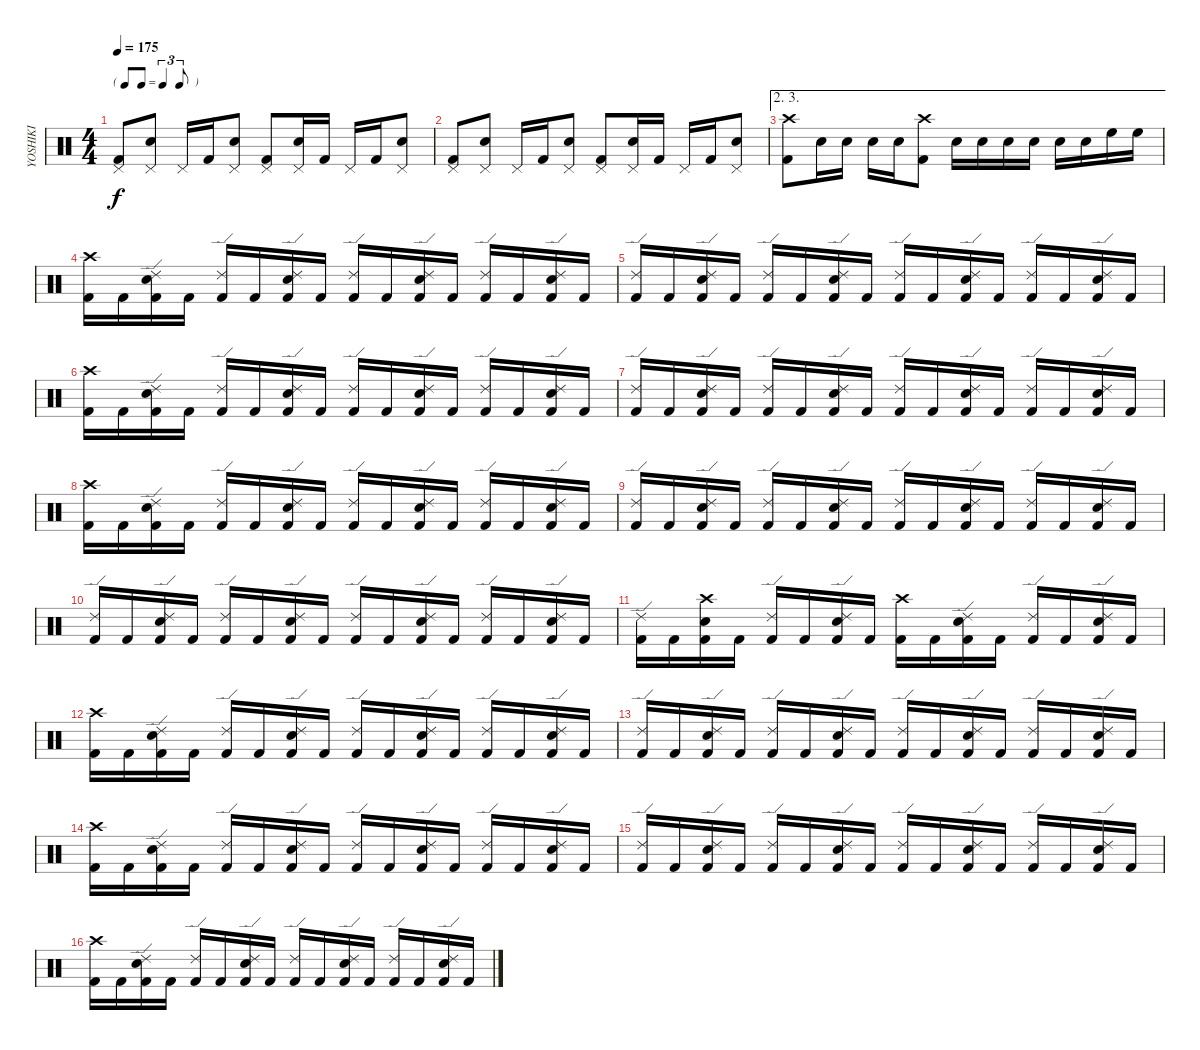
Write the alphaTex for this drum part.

\track ("YOSHIKI" "YOSHIKI") {instrument percussion}
\staff {score}
\articulation defaults
\ts (4 4)
\tf triplet8th
\tempo 175
\clef neutral
\ks c
("Pedal Hi-Hat (hit)" "Kick (hit) 2").8{dy f} ("Pedal Hi-Hat (hit)" "Snare (hit) 2").8 "Pedal Hi-Hat (hit)".16 "Kick (hit) 2".16 ("Pedal Hi-Hat (hit)" "Snare (hit) 2").8 ("Pedal Hi-Hat (hit)" "Kick (hit) 2").8 ("Pedal Hi-Hat (hit)" "Snare (hit) 2").16 "Kick (hit) 2".16 "Pedal Hi-Hat (hit)".16 "Kick (hit) 2".16 ("Pedal Hi-Hat (hit)" "Snare (hit) 2").8 |
("Pedal Hi-Hat (hit)" "Kick (hit) 2").8 ("Pedal Hi-Hat (hit)" "Snare (hit) 2").8 "Pedal Hi-Hat (hit)".16 "Kick (hit) 2".16 ("Pedal Hi-Hat (hit)" "Snare (hit) 2").8 ("Pedal Hi-Hat (hit)" "Kick (hit) 2").8 ("Pedal Hi-Hat (hit)" "Snare (hit) 2").16 "Kick (hit) 2".16 "Pedal Hi-Hat (hit)".16 "Kick (hit) 2".16 ("Pedal Hi-Hat (hit)" "Snare (hit) 2").8 |
\ae (2 3)
("Crash high (hit)" "Kick (hit) 2").8 "Snare (hit) 2".16 "Snare (hit) 2".16 "Snare (hit) 2".16 "Snare (hit) 2".16 ("Crash high (hit)" "Kick (hit) 2").8 "Snare (hit) 2".16 "Snare (hit) 2".16 "Snare (hit) 2".16 "Snare (hit) 2".16 "Snare (hit) 2".16 "Snare (hit) 2".16 "High Floor Tom (hit)".16 "High Floor Tom (hit)".16 |
("Crash high (hit)" "Kick (hit) 2").16 "Kick (hit) 2".16 ("Ride (edge) 2" "Snare (hit) 2" "Kick (hit) 2").16 "Kick (hit) 2".16 ("Ride (edge) 2" "Kick (hit) 2").16 "Kick (hit) 2".16 ("Ride (edge) 2" "Snare (hit) 2" "Kick (hit) 2").16 "Kick (hit) 2".16 ("Ride (edge) 2" "Kick (hit) 2").16 "Kick (hit) 2".16 ("Ride (edge) 2" "Snare (hit) 2" "Kick (hit) 2").16 "Kick (hit) 2".16 ("Ride (edge) 2" "Kick (hit) 2").16 "Kick (hit) 2".16 ("Ride (edge) 2" "Snare (hit) 2" "Kick (hit) 2").16 "Kick (hit) 2".16 |
("Ride (edge) 2" "Kick (hit) 2").16 "Kick (hit) 2".16 ("Ride (edge) 2" "Snare (hit) 2" "Kick (hit) 2").16 "Kick (hit) 2".16 ("Ride (edge) 2" "Kick (hit) 2").16 "Kick (hit) 2".16 ("Ride (edge) 2" "Snare (hit) 2" "Kick (hit) 2").16 "Kick (hit) 2".16 ("Ride (edge) 2" "Kick (hit) 2").16 "Kick (hit) 2".16 ("Ride (edge) 2" "Snare (hit) 2" "Kick (hit) 2").16 "Kick (hit) 2".16 ("Ride (edge) 2" "Kick (hit) 2").16 "Kick (hit) 2".16 ("Ride (edge) 2" "Snare (hit) 2" "Kick (hit) 2").16 "Kick (hit) 2".16 |
("Crash high (hit)" "Kick (hit) 2").16 "Kick (hit) 2".16 ("Ride (edge) 2" "Snare (hit) 2" "Kick (hit) 2").16 "Kick (hit) 2".16 ("Ride (edge) 2" "Kick (hit) 2").16 "Kick (hit) 2".16 ("Ride (edge) 2" "Snare (hit) 2" "Kick (hit) 2").16 "Kick (hit) 2".16 ("Ride (edge) 2" "Kick (hit) 2").16 "Kick (hit) 2".16 ("Ride (edge) 2" "Snare (hit) 2" "Kick (hit) 2").16 "Kick (hit) 2".16 ("Ride (edge) 2" "Kick (hit) 2").16 "Kick (hit) 2".16 ("Ride (edge) 2" "Snare (hit) 2" "Kick (hit) 2").16 "Kick (hit) 2".16 |
("Ride (edge) 2" "Kick (hit) 2").16 "Kick (hit) 2".16 ("Ride (edge) 2" "Snare (hit) 2" "Kick (hit) 2").16 "Kick (hit) 2".16 ("Ride (edge) 2" "Kick (hit) 2").16 "Kick (hit) 2".16 ("Ride (edge) 2" "Snare (hit) 2" "Kick (hit) 2").16 "Kick (hit) 2".16 ("Ride (edge) 2" "Kick (hit) 2").16 "Kick (hit) 2".16 ("Ride (edge) 2" "Snare (hit) 2" "Kick (hit) 2").16 "Kick (hit) 2".16 ("Ride (edge) 2" "Kick (hit) 2").16 "Kick (hit) 2".16 ("Ride (edge) 2" "Snare (hit) 2" "Kick (hit) 2").16 "Kick (hit) 2".16 |
("Crash high (hit)" "Kick (hit) 2").16 "Kick (hit) 2".16 ("Ride (edge) 2" "Snare (hit) 2" "Kick (hit) 2").16 "Kick (hit) 2".16 ("Ride (edge) 2" "Kick (hit) 2").16 "Kick (hit) 2".16 ("Ride (edge) 2" "Snare (hit) 2" "Kick (hit) 2").16 "Kick (hit) 2".16 ("Ride (edge) 2" "Kick (hit) 2").16 "Kick (hit) 2".16 ("Ride (edge) 2" "Snare (hit) 2" "Kick (hit) 2").16 "Kick (hit) 2".16 ("Ride (edge) 2" "Kick (hit) 2").16 "Kick (hit) 2".16 ("Ride (edge) 2" "Snare (hit) 2" "Kick (hit) 2").16 "Kick (hit) 2".16 |
("Ride (edge) 2" "Kick (hit) 2").16 "Kick (hit) 2".16 ("Ride (edge) 2" "Snare (hit) 2" "Kick (hit) 2").16 "Kick (hit) 2".16 ("Ride (edge) 2" "Kick (hit) 2").16 "Kick (hit) 2".16 ("Ride (edge) 2" "Snare (hit) 2" "Kick (hit) 2").16 "Kick (hit) 2".16 ("Ride (edge) 2" "Kick (hit) 2").16 "Kick (hit) 2".16 ("Ride (edge) 2" "Snare (hit) 2" "Kick (hit) 2").16 "Kick (hit) 2".16 ("Ride (edge) 2" "Kick (hit) 2").16 "Kick (hit) 2".16 ("Ride (edge) 2" "Snare (hit) 2" "Kick (hit) 2").16 "Kick (hit) 2".16 |
("Ride (edge) 2" "Kick (hit) 2").16 "Kick (hit) 2".16 ("Ride (edge) 2" "Snare (hit) 2" "Kick (hit) 2").16 "Kick (hit) 2".16 ("Ride (edge) 2" "Kick (hit) 2").16 "Kick (hit) 2".16 ("Ride (edge) 2" "Snare (hit) 2" "Kick (hit) 2").16 "Kick (hit) 2".16 ("Ride (edge) 2" "Kick (hit) 2").16 "Kick (hit) 2".16 ("Ride (edge) 2" "Snare (hit) 2" "Kick (hit) 2").16 "Kick (hit) 2".16 ("Ride (edge) 2" "Kick (hit) 2").16 "Kick (hit) 2".16 ("Ride (edge) 2" "Snare (hit) 2" "Kick (hit) 2").16 "Kick (hit) 2".16 |
("Ride (edge) 2" "Kick (hit) 2").16 "Kick (hit) 2".16 ("Crash high (hit)" "Snare (hit) 2" "Kick (hit) 2").16 "Kick (hit) 2".16 ("Ride (edge) 2" "Kick (hit) 2").16 "Kick (hit) 2".16 ("Ride (edge) 2" "Snare (hit) 2" "Kick (hit) 2").16 "Kick (hit) 2".16 ("Crash high (hit)" "Kick (hit) 2").16 "Kick (hit) 2".16 ("Ride (edge) 2" "Snare (hit) 2" "Kick (hit) 2").16 "Kick (hit) 2".16 ("Ride (edge) 2" "Kick (hit) 2").16 "Kick (hit) 2".16 ("Ride (edge) 2" "Snare (hit) 2" "Kick (hit) 2").16 "Kick (hit) 2".16 |
("Crash high (hit)" "Kick (hit) 2").16 "Kick (hit) 2".16 ("Ride (edge) 2" "Snare (hit) 2" "Kick (hit) 2").16 "Kick (hit) 2".16 ("Ride (edge) 2" "Kick (hit) 2").16 "Kick (hit) 2".16 ("Ride (edge) 2" "Snare (hit) 2" "Kick (hit) 2").16 "Kick (hit) 2".16 ("Ride (edge) 2" "Kick (hit) 2").16 "Kick (hit) 2".16 ("Ride (edge) 2" "Snare (hit) 2" "Kick (hit) 2").16 "Kick (hit) 2".16 ("Ride (edge) 2" "Kick (hit) 2").16 "Kick (hit) 2".16 ("Ride (edge) 2" "Snare (hit) 2" "Kick (hit) 2").16 "Kick (hit) 2".16 |
("Ride (edge) 2" "Kick (hit) 2").16 "Kick (hit) 2".16 ("Ride (edge) 2" "Snare (hit) 2" "Kick (hit) 2").16 "Kick (hit) 2".16 ("Ride (edge) 2" "Kick (hit) 2").16 "Kick (hit) 2".16 ("Ride (edge) 2" "Snare (hit) 2" "Kick (hit) 2").16 "Kick (hit) 2".16 ("Ride (edge) 2" "Kick (hit) 2").16 "Kick (hit) 2".16 ("Ride (edge) 2" "Snare (hit) 2" "Kick (hit) 2").16 "Kick (hit) 2".16 ("Ride (edge) 2" "Kick (hit) 2").16 "Kick (hit) 2".16 ("Ride (edge) 2" "Snare (hit) 2" "Kick (hit) 2").16 "Kick (hit) 2".16 |
("Crash high (hit)" "Kick (hit) 2").16 "Kick (hit) 2".16 ("Ride (edge) 2" "Snare (hit) 2" "Kick (hit) 2").16 "Kick (hit) 2".16 ("Ride (edge) 2" "Kick (hit) 2").16 "Kick (hit) 2".16 ("Ride (edge) 2" "Snare (hit) 2" "Kick (hit) 2").16 "Kick (hit) 2".16 ("Ride (edge) 2" "Kick (hit) 2").16 "Kick (hit) 2".16 ("Ride (edge) 2" "Snare (hit) 2" "Kick (hit) 2").16 "Kick (hit) 2".16 ("Ride (edge) 2" "Kick (hit) 2").16 "Kick (hit) 2".16 ("Ride (edge) 2" "Snare (hit) 2" "Kick (hit) 2").16 "Kick (hit) 2".16 |
("Ride (edge) 2" "Kick (hit) 2").16 "Kick (hit) 2".16 ("Ride (edge) 2" "Snare (hit) 2" "Kick (hit) 2").16 "Kick (hit) 2".16 ("Ride (edge) 2" "Kick (hit) 2").16 "Kick (hit) 2".16 ("Ride (edge) 2" "Snare (hit) 2" "Kick (hit) 2").16 "Kick (hit) 2".16 ("Ride (edge) 2" "Kick (hit) 2").16 "Kick (hit) 2".16 ("Ride (edge) 2" "Snare (hit) 2" "Kick (hit) 2").16 "Kick (hit) 2".16 ("Ride (edge) 2" "Kick (hit) 2").16 "Kick (hit) 2".16 ("Ride (edge) 2" "Snare (hit) 2" "Kick (hit) 2").16 "Kick (hit) 2".16 |
("Crash high (hit)" "Kick (hit) 2").16 "Kick (hit) 2".16 ("Ride (edge) 2" "Snare (hit) 2" "Kick (hit) 2").16 "Kick (hit) 2".16 ("Ride (edge) 2" "Kick (hit) 2").16 "Kick (hit) 2".16 ("Ride (edge) 2" "Snare (hit) 2" "Kick (hit) 2").16 "Kick (hit) 2".16 ("Ride (edge) 2" "Kick (hit) 2").16 "Kick (hit) 2".16 ("Ride (edge) 2" "Snare (hit) 2" "Kick (hit) 2").16 "Kick (hit) 2".16 ("Ride (edge) 2" "Kick (hit) 2").16 "Kick (hit) 2".16 ("Ride (edge) 2" "Snare (hit) 2" "Kick (hit) 2").16 "Kick (hit) 2".16
